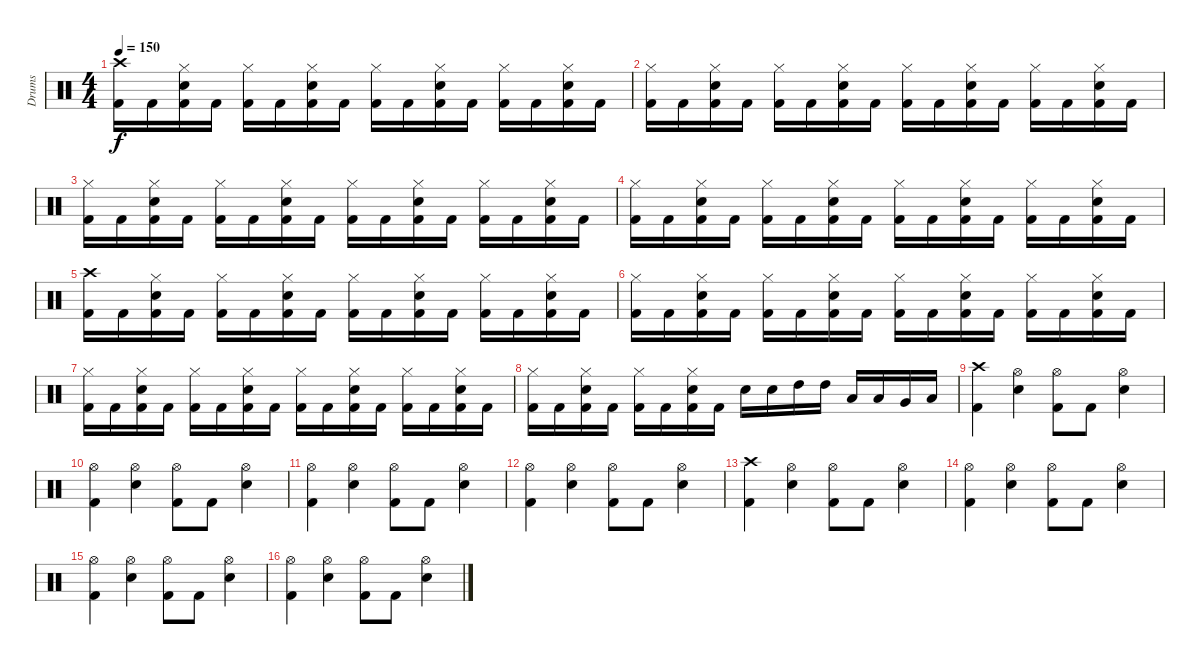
\track ("Drums" "Drums") {instrument percussion}
\staff {score}
\articulation defaults
\ts (4 4)
\tempo 150
\clef neutral
\ks c
("Crash high (hit)" "Kick (hit) 2").16{dy f} "Kick (hit) 2".16 ("Hi-Hat (closed)" "Electric Snare (hit)" "Kick (hit) 2").16 "Kick (hit) 2".16 ("Hi-Hat (closed)" "Kick (hit) 2").16 "Kick (hit) 2".16 ("Hi-Hat (closed)" "Electric Snare (hit)" "Kick (hit) 2").16 "Kick (hit) 2".16 ("Hi-Hat (closed)" "Kick (hit) 2").16 "Kick (hit) 2".16 ("Hi-Hat (closed)" "Electric Snare (hit)" "Kick (hit) 2").16 "Kick (hit) 2".16 ("Hi-Hat (closed)" "Kick (hit) 2").16 "Kick (hit) 2".16 ("Hi-Hat (closed)" "Electric Snare (hit)" "Kick (hit) 2").16 "Kick (hit) 2".16 |
("Hi-Hat (closed)" "Kick (hit) 2").16 "Kick (hit) 2".16 ("Hi-Hat (closed)" "Electric Snare (hit)" "Kick (hit) 2").16 "Kick (hit) 2".16 ("Hi-Hat (closed)" "Kick (hit) 2").16 "Kick (hit) 2".16 ("Hi-Hat (closed)" "Electric Snare (hit)" "Kick (hit) 2").16 "Kick (hit) 2".16 ("Hi-Hat (closed)" "Kick (hit) 2").16 "Kick (hit) 2".16 ("Hi-Hat (closed)" "Electric Snare (hit)" "Kick (hit) 2").16 "Kick (hit) 2".16 ("Hi-Hat (closed)" "Kick (hit) 2").16 "Kick (hit) 2".16 ("Hi-Hat (closed)" "Electric Snare (hit)" "Kick (hit) 2").16 "Kick (hit) 2".16 |
("Hi-Hat (closed)" "Kick (hit) 2").16 "Kick (hit) 2".16 ("Hi-Hat (closed)" "Electric Snare (hit)" "Kick (hit) 2").16 "Kick (hit) 2".16 ("Hi-Hat (closed)" "Kick (hit) 2").16 "Kick (hit) 2".16 ("Hi-Hat (closed)" "Electric Snare (hit)" "Kick (hit) 2").16 "Kick (hit) 2".16 ("Hi-Hat (closed)" "Kick (hit) 2").16 "Kick (hit) 2".16 ("Hi-Hat (closed)" "Electric Snare (hit)" "Kick (hit) 2").16 "Kick (hit) 2".16 ("Hi-Hat (closed)" "Kick (hit) 2").16 "Kick (hit) 2".16 ("Hi-Hat (closed)" "Electric Snare (hit)" "Kick (hit) 2").16 "Kick (hit) 2".16 |
("Hi-Hat (closed)" "Kick (hit) 2").16 "Kick (hit) 2".16 ("Hi-Hat (closed)" "Electric Snare (hit)" "Kick (hit) 2").16 "Kick (hit) 2".16 ("Hi-Hat (closed)" "Kick (hit) 2").16 "Kick (hit) 2".16 ("Hi-Hat (closed)" "Electric Snare (hit)" "Kick (hit) 2").16 "Kick (hit) 2".16 ("Hi-Hat (closed)" "Kick (hit) 2").16 "Kick (hit) 2".16 ("Hi-Hat (closed)" "Electric Snare (hit)" "Kick (hit) 2").16 "Kick (hit) 2".16 ("Hi-Hat (closed)" "Kick (hit) 2").16 "Kick (hit) 2".16 ("Hi-Hat (closed)" "Electric Snare (hit)" "Kick (hit) 2").16 "Kick (hit) 2".16 |
("Crash high (hit)" "Kick (hit) 2").16 "Kick (hit) 2".16 ("Hi-Hat (closed)" "Electric Snare (hit)" "Kick (hit) 2").16 "Kick (hit) 2".16 ("Hi-Hat (closed)" "Kick (hit) 2").16 "Kick (hit) 2".16 ("Hi-Hat (closed)" "Electric Snare (hit)" "Kick (hit) 2").16 "Kick (hit) 2".16 ("Hi-Hat (closed)" "Kick (hit) 2").16 "Kick (hit) 2".16 ("Hi-Hat (closed)" "Electric Snare (hit)" "Kick (hit) 2").16 "Kick (hit) 2".16 ("Hi-Hat (closed)" "Kick (hit) 2").16 "Kick (hit) 2".16 ("Hi-Hat (closed)" "Electric Snare (hit)" "Kick (hit) 2").16 "Kick (hit) 2".16 |
("Hi-Hat (closed)" "Kick (hit) 2").16 "Kick (hit) 2".16 ("Hi-Hat (closed)" "Electric Snare (hit)" "Kick (hit) 2").16 "Kick (hit) 2".16 ("Hi-Hat (closed)" "Kick (hit) 2").16 "Kick (hit) 2".16 ("Hi-Hat (closed)" "Electric Snare (hit)" "Kick (hit) 2").16 "Kick (hit) 2".16 ("Hi-Hat (closed)" "Kick (hit) 2").16 "Kick (hit) 2".16 ("Hi-Hat (closed)" "Electric Snare (hit)" "Kick (hit) 2").16 "Kick (hit) 2".16 ("Hi-Hat (closed)" "Kick (hit) 2").16 "Kick (hit) 2".16 ("Hi-Hat (closed)" "Electric Snare (hit)" "Kick (hit) 2").16 "Kick (hit) 2".16 |
("Hi-Hat (closed)" "Kick (hit) 2").16 "Kick (hit) 2".16 ("Hi-Hat (closed)" "Electric Snare (hit)" "Kick (hit) 2").16 "Kick (hit) 2".16 ("Hi-Hat (closed)" "Kick (hit) 2").16 "Kick (hit) 2".16 ("Hi-Hat (closed)" "Electric Snare (hit)" "Kick (hit) 2").16 "Kick (hit) 2".16 ("Hi-Hat (closed)" "Kick (hit) 2").16 "Kick (hit) 2".16 ("Hi-Hat (closed)" "Electric Snare (hit)" "Kick (hit) 2").16 "Kick (hit) 2".16 ("Hi-Hat (closed)" "Kick (hit) 2").16 "Kick (hit) 2".16 ("Hi-Hat (closed)" "Electric Snare (hit)" "Kick (hit) 2").16 "Kick (hit) 2".16 |
("Hi-Hat (closed)" "Kick (hit) 2").16 "Kick (hit) 2".16 ("Hi-Hat (closed)" "Electric Snare (hit)" "Kick (hit) 2").16 "Kick (hit) 2".16 ("Hi-Hat (closed)" "Kick (hit) 2").16 "Kick (hit) 2".16 ("Hi-Hat (closed)" "Electric Snare (hit)" "Kick (hit) 2").16 "Kick (hit) 2".16 "Electric Snare (hit)".16 "Electric Snare (hit)".16 "High Tom (hit)".16 "High Tom (hit)".16 "Low Tom (hit)".16 "Low Tom (hit)".16 "Very Low Tom (hit)".16 "Low Floor Tom (hit)".16 |
("Crash high (hit)" "Kick (hit) 2").4 ("Hi-Hat (open)" "Electric Snare (hit)").4 ("Hi-Hat (open)" "Kick (hit) 2").8 "Kick (hit) 2".8 ("Hi-Hat (open)" "Electric Snare (hit)").4 |
("Hi-Hat (open)" "Kick (hit) 2").4 ("Hi-Hat (open)" "Electric Snare (hit)").4 ("Hi-Hat (open)" "Kick (hit) 2").8 "Kick (hit) 2".8 ("Hi-Hat (open)" "Electric Snare (hit)").4 |
("Hi-Hat (open)" "Kick (hit) 2").4 ("Hi-Hat (open)" "Electric Snare (hit)").4 ("Hi-Hat (open)" "Kick (hit) 2").8 "Kick (hit) 2".8 ("Hi-Hat (open)" "Electric Snare (hit)").4 |
("Hi-Hat (open)" "Kick (hit) 2").4 ("Hi-Hat (open)" "Electric Snare (hit)").4 ("Hi-Hat (open)" "Kick (hit) 2").8 "Kick (hit) 2".8 ("Hi-Hat (open)" "Electric Snare (hit)").4 |
("Crash high (hit)" "Kick (hit) 2").4 ("Hi-Hat (open)" "Electric Snare (hit)").4 ("Hi-Hat (open)" "Kick (hit) 2").8 "Kick (hit) 2".8 ("Hi-Hat (open)" "Electric Snare (hit)").4 |
("Hi-Hat (open)" "Kick (hit) 2").4 ("Hi-Hat (open)" "Electric Snare (hit)").4 ("Hi-Hat (open)" "Kick (hit) 2").8 "Kick (hit) 2".8 ("Hi-Hat (open)" "Electric Snare (hit)").4 |
("Hi-Hat (open)" "Kick (hit) 2").4 ("Hi-Hat (open)" "Electric Snare (hit)").4 ("Hi-Hat (open)" "Kick (hit) 2").8 "Kick (hit) 2".8 ("Hi-Hat (open)" "Electric Snare (hit)").4 |
("Hi-Hat (open)" "Kick (hit) 2").4 ("Hi-Hat (open)" "Electric Snare (hit)").4 ("Hi-Hat (open)" "Kick (hit) 2").8 "Kick (hit) 2".8 ("Hi-Hat (open)" "Electric Snare (hit)").4
